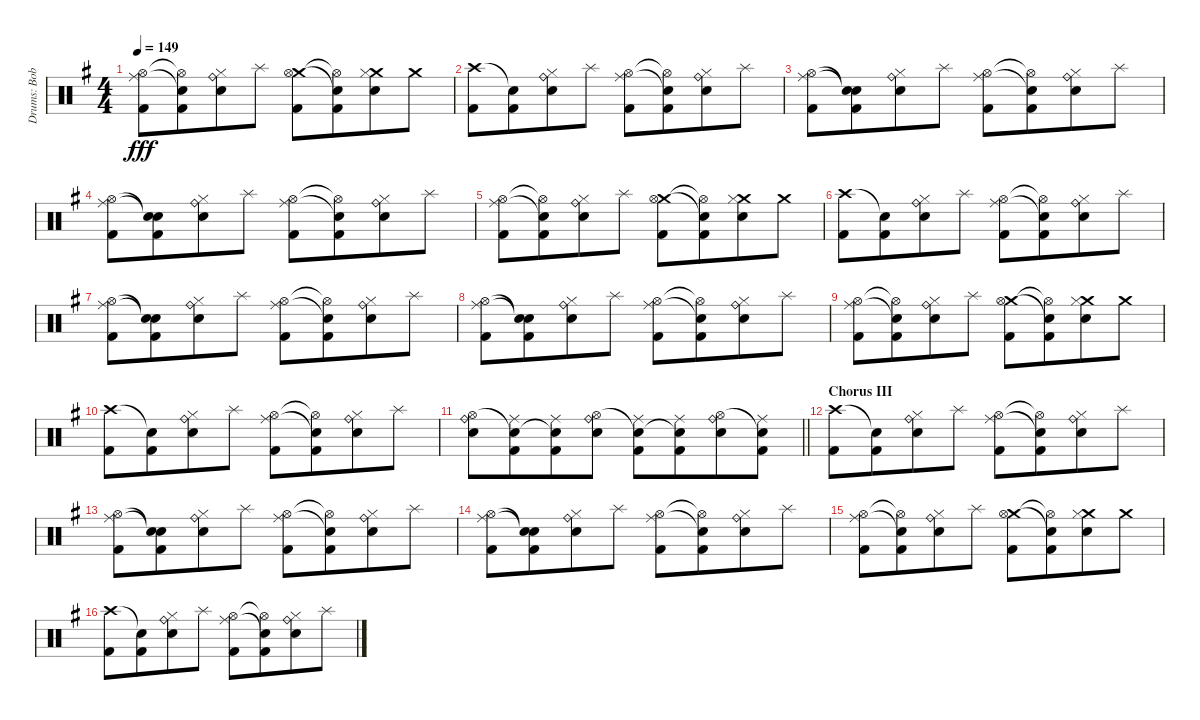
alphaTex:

\track ("Drums: Bobby" "Drums: Bob") {instrument percussion}
\staff {score}
\articulation defaults
\ts (4 4)
\tempo 149
\clef neutral
\ks g
("Ride (middle)" "Hi-Hat (open)" "Kick (hit) 2").8{dy fff} ("Snare (hit)"{t} "Hi-Hat (open)"{t} "Kick (hit) 2").8{beam merge} ("Ride (bell)" "Hi-Hat (closed)" "Snare (hit) 2").8 "Splash (hit)".8 ("Crash medium (hit)" "Hi-Hat (open)" "Kick (hit) 2").8 ("Snare (hit)"{t} "Hi-Hat (open)"{t} "Kick (hit) 2").8{beam merge} ("Crash medium (hit)" "Hi-Hat (closed)" "Snare (hit) 2").8 "Crash medium (hit)".8 |
("Crash high (hit)" "Kick (hit) 2").8 ("Snare (hit)"{t} "Kick (hit) 2").8{beam merge} ("Ride (bell)" "Hi-Hat (closed)" "Snare (hit) 2").8 "Splash (hit)".8 ("Ride (middle)" "Hi-Hat (open)" "Kick (hit) 2").8 ("Snare (hit)"{t} "Hi-Hat (open)"{t} "Kick (hit) 2").8{beam merge} ("Ride (bell)" "Hi-Hat (closed)" "Snare (hit) 2").8 "Splash (hit)".8 |
("Ride (middle)" "Hi-Hat (open)" "Kick (hit) 2").8 ("Snare (hit)"{t} "Snare (hit)"{t} "Kick (hit) 2").8{beam merge} ("Ride (bell)" "Hi-Hat (closed)" "Snare (hit) 2").8 "Splash (hit)".8 ("Ride (middle)" "Hi-Hat (open)" "Kick (hit) 2").8 ("Snare (hit)"{t} "Hi-Hat (open)"{t} "Kick (hit) 2").8{beam merge} ("Ride (bell)" "Hi-Hat (closed)" "Snare (hit) 2").8 "Splash (hit)".8 |
("Ride (middle)" "Hi-Hat (open)" "Kick (hit) 2").8 ("Snare (hit)"{t} "Snare (hit)"{t} "Kick (hit) 2").8{beam merge} ("Ride (bell)" "Hi-Hat (closed)" "Snare (hit) 2").8 "Splash (hit)".8 ("Ride (middle)" "Hi-Hat (open)" "Kick (hit) 2").8 ("Snare (hit)"{t} "Hi-Hat (open)"{t} "Kick (hit) 2").8{beam merge} ("Ride (bell)" "Hi-Hat (closed)" "Snare (hit) 2").8 "Splash (hit)".8 |
("Ride (middle)" "Hi-Hat (open)" "Kick (hit) 2").8 ("Snare (hit)"{t} "Hi-Hat (open)"{t} "Kick (hit) 2").8{beam merge} ("Ride (bell)" "Hi-Hat (closed)" "Snare (hit) 2").8 "Splash (hit)".8 ("Crash medium (hit)" "Hi-Hat (open)" "Kick (hit) 2").8 ("Snare (hit)"{t} "Hi-Hat (open)"{t} "Kick (hit) 2").8{beam merge} ("Crash medium (hit)" "Hi-Hat (closed)" "Snare (hit) 2").8 "Crash medium (hit)".8 |
("Crash high (hit)" "Kick (hit) 2").8 ("Snare (hit)"{t} "Kick (hit) 2").8{beam merge} ("Ride (bell)" "Hi-Hat (closed)" "Snare (hit) 2").8 "Splash (hit)".8 ("Ride (middle)" "Hi-Hat (open)" "Kick (hit) 2").8 ("Snare (hit)"{t} "Hi-Hat (open)"{t} "Kick (hit) 2").8{beam merge} ("Ride (bell)" "Hi-Hat (closed)" "Snare (hit) 2").8 "Splash (hit)".8 |
("Ride (middle)" "Hi-Hat (open)" "Kick (hit) 2").8 ("Snare (hit)"{t} "Snare (hit)"{t} "Kick (hit) 2").8{beam merge} ("Ride (bell)" "Hi-Hat (closed)" "Snare (hit) 2").8 "Splash (hit)".8 ("Ride (middle)" "Hi-Hat (open)" "Kick (hit) 2").8 ("Snare (hit)"{t} "Hi-Hat (open)"{t} "Kick (hit) 2").8{beam merge} ("Ride (bell)" "Hi-Hat (closed)" "Snare (hit) 2").8 "Splash (hit)".8 |
("Ride (middle)" "Hi-Hat (open)" "Kick (hit) 2").8 ("Snare (hit)"{t} "Snare (hit)"{t} "Kick (hit) 2").8{beam merge} ("Ride (bell)" "Hi-Hat (closed)" "Snare (hit) 2").8 "Splash (hit)".8 ("Ride (middle)" "Hi-Hat (open)" "Kick (hit) 2").8 ("Snare (hit)"{t} "Hi-Hat (open)"{t} "Kick (hit) 2").8{beam merge} ("Ride (bell)" "Hi-Hat (closed)" "Snare (hit) 2").8 "Splash (hit)".8 |
("Ride (middle)" "Hi-Hat (open)" "Kick (hit) 2").8 ("Snare (hit)"{t} "Hi-Hat (open)"{t} "Kick (hit) 2").8{beam merge} ("Ride (bell)" "Hi-Hat (closed)" "Snare (hit) 2").8 "Splash (hit)".8 ("Crash medium (hit)" "Hi-Hat (open)" "Kick (hit) 2").8 ("Snare (hit)"{t} "Hi-Hat (open)"{t} "Kick (hit) 2").8{beam merge} ("Crash medium (hit)" "Hi-Hat (closed)" "Snare (hit) 2").8 "Crash medium (hit)".8 |
("Crash high (hit)" "Kick (hit) 2").8 ("Snare (hit)"{t} "Kick (hit) 2").8{beam merge} ("Ride (bell)" "Hi-Hat (closed)" "Snare (hit) 2").8 "Splash (hit)".8 ("Ride (middle)" "Hi-Hat (open)" "Kick (hit) 2").8 ("Snare (hit)"{t} "Hi-Hat (open)"{t} "Kick (hit) 2").8{beam merge} ("Ride (bell)" "Hi-Hat (closed)" "Snare (hit) 2").8 "Splash (hit)".8 |
\barLineRight lightlight
("Ride (bell)" "Hi-Hat (open)" "Snare (hit) 2").8 ("Ride (middle)" "Snare (hit)"{t} "Kick (hit) 2").8{beam merge} ("Ride (middle)" "Snare (hit)"{t} "Kick (hit) 2").8{beam merge} ("Ride (bell)" "Hi-Hat (open)" "Snare (hit) 2").8 ("Ride (middle)" "Snare (hit)"{t} "Kick (hit) 2").8{beam merge} ("Ride (middle)" "Snare (hit)"{t} "Kick (hit) 2").8{beam merge} ("Ride (bell)" "Hi-Hat (open)" "Snare (hit) 2").8 ("Ride (middle)" "Snare (hit)"{t} "Kick (hit) 2").8 |
\section ("" "Chorus III")
("Crash high (hit)" "Kick (hit) 2").8 ("Snare (hit)"{t} "Kick (hit) 2").8{beam merge} ("Ride (bell)" "Hi-Hat (closed)" "Snare (hit) 2").8 "Splash (hit)".8 ("Ride (middle)" "Hi-Hat (open)" "Kick (hit) 2").8 ("Snare (hit)"{t} "Hi-Hat (open)"{t} "Kick (hit) 2").8{beam merge} ("Ride (bell)" "Hi-Hat (closed)" "Snare (hit) 2").8 "Splash (hit)".8 |
("Ride (middle)" "Hi-Hat (open)" "Kick (hit) 2").8 ("Snare (hit)"{t} "Snare (hit)"{t} "Kick (hit) 2").8{beam merge} ("Ride (bell)" "Hi-Hat (closed)" "Snare (hit) 2").8 "Splash (hit)".8 ("Ride (middle)" "Hi-Hat (open)" "Kick (hit) 2").8 ("Snare (hit)"{t} "Hi-Hat (open)"{t} "Kick (hit) 2").8{beam merge} ("Ride (bell)" "Hi-Hat (closed)" "Snare (hit) 2").8 "Splash (hit)".8 |
("Ride (middle)" "Hi-Hat (open)" "Kick (hit) 2").8 ("Snare (hit)"{t} "Snare (hit)"{t} "Kick (hit) 2").8{beam merge} ("Ride (bell)" "Hi-Hat (closed)" "Snare (hit) 2").8 "Splash (hit)".8 ("Ride (middle)" "Hi-Hat (open)" "Kick (hit) 2").8 ("Snare (hit)"{t} "Hi-Hat (open)"{t} "Kick (hit) 2").8{beam merge} ("Ride (bell)" "Hi-Hat (closed)" "Snare (hit) 2").8 "Splash (hit)".8 |
("Ride (middle)" "Hi-Hat (open)" "Kick (hit) 2").8 ("Snare (hit)"{t} "Hi-Hat (open)"{t} "Kick (hit) 2").8{beam merge} ("Ride (bell)" "Hi-Hat (closed)" "Snare (hit) 2").8 "Splash (hit)".8 ("Crash medium (hit)" "Hi-Hat (open)" "Kick (hit) 2").8 ("Snare (hit)"{t} "Hi-Hat (open)"{t} "Kick (hit) 2").8{beam merge} ("Crash medium (hit)" "Hi-Hat (closed)" "Snare (hit) 2").8 "Crash medium (hit)".8 |
("Crash high (hit)" "Kick (hit) 2").8 ("Snare (hit)"{t} "Kick (hit) 2").8{beam merge} ("Ride (bell)" "Hi-Hat (closed)" "Snare (hit) 2").8 "Splash (hit)".8 ("Ride (middle)" "Hi-Hat (open)" "Kick (hit) 2").8 ("Snare (hit)"{t} "Hi-Hat (open)"{t} "Kick (hit) 2").8{beam merge} ("Ride (bell)" "Hi-Hat (closed)" "Snare (hit) 2").8 "Splash (hit)".8
